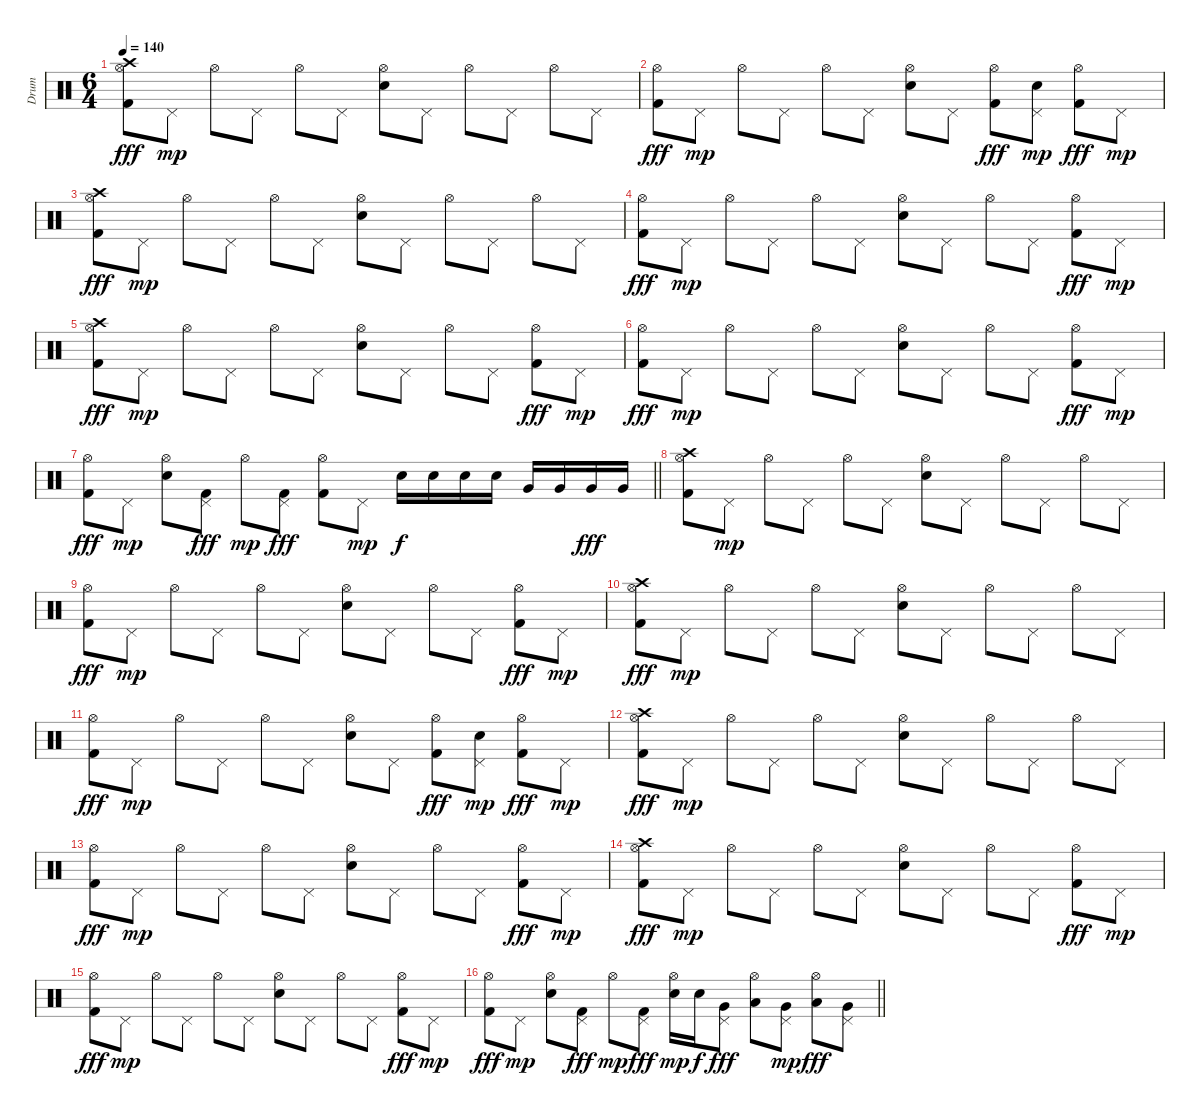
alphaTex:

\track ("Drum" "Drum") {instrument percussion}
\staff {score}
\articulation defaults
\ts (6 4)
\tempo 140
\clef neutral
\ks c
("Hi-Hat (open)" "Kick (hit) 2" "Crash high (hit)").8{dy fff} "Pedal Hi-Hat (hit)".8{dy mp} "Hi-Hat (open)".8 "Pedal Hi-Hat (hit)".8 "Hi-Hat (open)".8 "Pedal Hi-Hat (hit)".8 ("Hi-Hat (open)" "Electric Snare (hit)").8 "Pedal Hi-Hat (hit)".8 "Hi-Hat (open)".8 "Pedal Hi-Hat (hit)".8 "Hi-Hat (open)".8 "Pedal Hi-Hat (hit)".8 |
("Hi-Hat (open)" "Kick (hit) 2").8{dy fff} "Pedal Hi-Hat (hit)".8{dy mp} "Hi-Hat (open)".8 "Pedal Hi-Hat (hit)".8 "Hi-Hat (open)".8 "Pedal Hi-Hat (hit)".8 ("Hi-Hat (open)" "Electric Snare (hit)").8 "Pedal Hi-Hat (hit)".8 ("Hi-Hat (open)" "Kick (hit) 2").8{dy fff} ("Pedal Hi-Hat (hit)" "Electric Snare (hit)").8{dy mp} ("Hi-Hat (open)" "Kick (hit) 2").8{dy fff} "Pedal Hi-Hat (hit)".8{dy mp} |
("Hi-Hat (open)" "Kick (hit) 2" "Crash high (hit)").8{dy fff} "Pedal Hi-Hat (hit)".8{dy mp} "Hi-Hat (open)".8 "Pedal Hi-Hat (hit)".8 "Hi-Hat (open)".8 "Pedal Hi-Hat (hit)".8 ("Hi-Hat (open)" "Electric Snare (hit)").8 "Pedal Hi-Hat (hit)".8 "Hi-Hat (open)".8 "Pedal Hi-Hat (hit)".8 "Hi-Hat (open)".8 "Pedal Hi-Hat (hit)".8 |
("Hi-Hat (open)" "Kick (hit) 2").8{dy fff} "Pedal Hi-Hat (hit)".8{dy mp} "Hi-Hat (open)".8 "Pedal Hi-Hat (hit)".8 "Hi-Hat (open)".8 "Pedal Hi-Hat (hit)".8 ("Hi-Hat (open)" "Electric Snare (hit)").8 "Pedal Hi-Hat (hit)".8 "Hi-Hat (open)".8 "Pedal Hi-Hat (hit)".8 ("Hi-Hat (open)" "Kick (hit) 2").8{dy fff} "Pedal Hi-Hat (hit)".8{dy mp} |
("Hi-Hat (open)" "Kick (hit) 2" "Crash high (hit)").8{dy fff} "Pedal Hi-Hat (hit)".8{dy mp} "Hi-Hat (open)".8 "Pedal Hi-Hat (hit)".8 "Hi-Hat (open)".8 "Pedal Hi-Hat (hit)".8 ("Hi-Hat (open)" "Electric Snare (hit)").8 "Pedal Hi-Hat (hit)".8 "Hi-Hat (open)".8 "Pedal Hi-Hat (hit)".8 ("Hi-Hat (open)" "Kick (hit) 2").8{dy fff} "Pedal Hi-Hat (hit)".8{dy mp} |
("Hi-Hat (open)" "Kick (hit) 2").8{dy fff} "Pedal Hi-Hat (hit)".8{dy mp} "Hi-Hat (open)".8 "Pedal Hi-Hat (hit)".8 "Hi-Hat (open)".8 "Pedal Hi-Hat (hit)".8 ("Hi-Hat (open)" "Electric Snare (hit)").8 "Pedal Hi-Hat (hit)".8 "Hi-Hat (open)".8 "Pedal Hi-Hat (hit)".8 ("Hi-Hat (open)" "Kick (hit) 2").8{dy fff} "Pedal Hi-Hat (hit)".8{dy mp} |
\barLineRight lightlight
("Hi-Hat (open)" "Kick (hit) 2").8{dy fff} "Pedal Hi-Hat (hit)".8{dy mp} ("Hi-Hat (open)" "Electric Snare (hit)").8 ("Pedal Hi-Hat (hit)" "Kick (hit) 2").8{dy fff} "Hi-Hat (open)".8{dy mp} ("Pedal Hi-Hat (hit)" "Kick (hit) 2").8{dy fff} ("Hi-Hat (open)" "Kick (hit) 2").8 "Pedal Hi-Hat (hit)".8{dy mp} "Electric Snare (hit)".16{dy f} "Electric Snare (hit)".16 "Electric Snare (hit)".16 "Electric Snare (hit)".16 "Very Low Tom (hit)".16 "Very Low Tom (hit)".16 "Very Low Tom (hit)".16{dy fff} "Very Low Tom (hit)".16 |
("Hi-Hat (open)" "Kick (hit) 2" "Crash high (hit)").8 "Pedal Hi-Hat (hit)".8{dy mp} "Hi-Hat (open)".8 "Pedal Hi-Hat (hit)".8 "Hi-Hat (open)".8 "Pedal Hi-Hat (hit)".8 ("Hi-Hat (open)" "Electric Snare (hit)").8 "Pedal Hi-Hat (hit)".8 "Hi-Hat (open)".8 "Pedal Hi-Hat (hit)".8 "Hi-Hat (open)".8 "Pedal Hi-Hat (hit)".8 |
("Hi-Hat (open)" "Kick (hit) 2").8{dy fff} "Pedal Hi-Hat (hit)".8{dy mp} "Hi-Hat (open)".8 "Pedal Hi-Hat (hit)".8 "Hi-Hat (open)".8 "Pedal Hi-Hat (hit)".8 ("Hi-Hat (open)" "Electric Snare (hit)").8 "Pedal Hi-Hat (hit)".8 "Hi-Hat (open)".8 "Pedal Hi-Hat (hit)".8 ("Hi-Hat (open)" "Kick (hit) 2").8{dy fff} "Pedal Hi-Hat (hit)".8{dy mp} |
("Hi-Hat (open)" "Kick (hit) 2" "Crash high (hit)").8{dy fff} "Pedal Hi-Hat (hit)".8{dy mp} "Hi-Hat (open)".8 "Pedal Hi-Hat (hit)".8 "Hi-Hat (open)".8 "Pedal Hi-Hat (hit)".8 ("Hi-Hat (open)" "Electric Snare (hit)").8 "Pedal Hi-Hat (hit)".8 "Hi-Hat (open)".8 "Pedal Hi-Hat (hit)".8 "Hi-Hat (open)".8 "Pedal Hi-Hat (hit)".8 |
("Hi-Hat (open)" "Kick (hit) 2").8{dy fff} "Pedal Hi-Hat (hit)".8{dy mp} "Hi-Hat (open)".8 "Pedal Hi-Hat (hit)".8 "Hi-Hat (open)".8 "Pedal Hi-Hat (hit)".8 ("Hi-Hat (open)" "Electric Snare (hit)").8 "Pedal Hi-Hat (hit)".8 ("Hi-Hat (open)" "Kick (hit) 2").8{dy fff} ("Pedal Hi-Hat (hit)" "Electric Snare (hit)").8{dy mp} ("Hi-Hat (open)" "Kick (hit) 2").8{dy fff} "Pedal Hi-Hat (hit)".8{dy mp} |
("Hi-Hat (open)" "Kick (hit) 2" "Crash high (hit)").8{dy fff} "Pedal Hi-Hat (hit)".8{dy mp} "Hi-Hat (open)".8 "Pedal Hi-Hat (hit)".8 "Hi-Hat (open)".8 "Pedal Hi-Hat (hit)".8 ("Hi-Hat (open)" "Electric Snare (hit)").8 "Pedal Hi-Hat (hit)".8 "Hi-Hat (open)".8 "Pedal Hi-Hat (hit)".8 "Hi-Hat (open)".8 "Pedal Hi-Hat (hit)".8 |
("Hi-Hat (open)" "Kick (hit) 2").8{dy fff} "Pedal Hi-Hat (hit)".8{dy mp} "Hi-Hat (open)".8 "Pedal Hi-Hat (hit)".8 "Hi-Hat (open)".8 "Pedal Hi-Hat (hit)".8 ("Hi-Hat (open)" "Electric Snare (hit)").8 "Pedal Hi-Hat (hit)".8 "Hi-Hat (open)".8 "Pedal Hi-Hat (hit)".8 ("Hi-Hat (open)" "Kick (hit) 2").8{dy fff} "Pedal Hi-Hat (hit)".8{dy mp} |
("Hi-Hat (open)" "Kick (hit) 2" "Crash high (hit)").8{dy fff} "Pedal Hi-Hat (hit)".8{dy mp} "Hi-Hat (open)".8 "Pedal Hi-Hat (hit)".8 "Hi-Hat (open)".8 "Pedal Hi-Hat (hit)".8 ("Hi-Hat (open)" "Electric Snare (hit)").8 "Pedal Hi-Hat (hit)".8 "Hi-Hat (open)".8 "Pedal Hi-Hat (hit)".8 ("Hi-Hat (open)" "Kick (hit) 2").8{dy fff} "Pedal Hi-Hat (hit)".8{dy mp} |
("Hi-Hat (open)" "Kick (hit) 2").8{dy fff} "Pedal Hi-Hat (hit)".8{dy mp} "Hi-Hat (open)".8 "Pedal Hi-Hat (hit)".8 "Hi-Hat (open)".8 "Pedal Hi-Hat (hit)".8 ("Hi-Hat (open)" "Electric Snare (hit)").8 "Pedal Hi-Hat (hit)".8 "Hi-Hat (open)".8 "Pedal Hi-Hat (hit)".8 ("Hi-Hat (open)" "Kick (hit) 2").8{dy fff} "Pedal Hi-Hat (hit)".8{dy mp} |
\barLineRight lightlight
("Hi-Hat (open)" "Kick (hit) 2").8{dy fff} "Pedal Hi-Hat (hit)".8{dy mp} ("Hi-Hat (open)" "Electric Snare (hit)").8 ("Pedal Hi-Hat (hit)" "Kick (hit) 2").8{dy fff} "Hi-Hat (open)".8{dy mp} ("Pedal Hi-Hat (hit)" "Kick (hit) 2").8{dy fff} ("Hi-Hat (open)" "Electric Snare (hit)").16{dy mp} "Electric Snare (hit)".16{dy f} ("Pedal Hi-Hat (hit)" "Very Low Tom (hit)").8{dy fff} ("Hi-Hat (open)" "Low Tom (hit)").8 ("Pedal Hi-Hat (hit)" "Very Low Tom (hit)").8{dy mp} ("Hi-Hat (open)" "Low Tom (hit)").8{dy fff} ("Pedal Hi-Hat (hit)" "Very Low Tom (hit)").8
